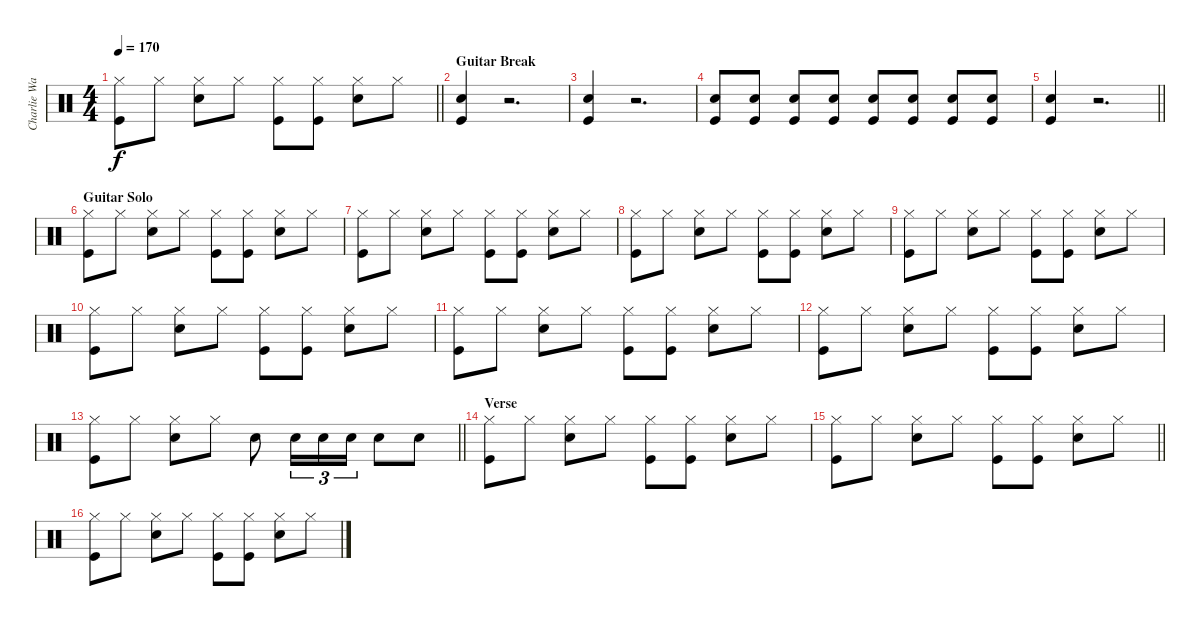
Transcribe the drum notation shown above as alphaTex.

\track ("Charlie Watts" "Charlie Wa") {instrument percussion}
\staff {score}
\articulation defaults
\ts (4 4)
\tempo 170
\clef neutral
\barLineRight lightlight
\ks c
("Hi-Hat (closed)" "Kick (hit)").8{dy f} "Hi-Hat (closed)".8 ("Hi-Hat (closed)" "Snare (hit) 2").8 "Hi-Hat (closed)".8 ("Hi-Hat (closed)" "Kick (hit)").8 ("Hi-Hat (closed)" "Kick (hit)").8 ("Hi-Hat (closed)" "Snare (hit) 2").8 "Hi-Hat (closed)".8 |
\section ("" "Guitar Break")
("Snare (hit) 2" "Kick (hit)").4 r.2{d} |
("Snare (hit) 2" "Kick (hit)").4 r.2{d} |
("Snare (hit) 2" "Kick (hit)").8 ("Snare (hit) 2" "Kick (hit)").8 ("Snare (hit) 2" "Kick (hit)").8 ("Snare (hit) 2" "Kick (hit)").8 ("Snare (hit) 2" "Kick (hit)").8 ("Snare (hit) 2" "Kick (hit)").8 ("Snare (hit) 2" "Kick (hit)").8 ("Snare (hit) 2" "Kick (hit)").8 |
\barLineRight lightlight
("Snare (hit) 2" "Kick (hit)").4 r.2{d} |
\section ("" "Guitar Solo")
("Hi-Hat (closed)" "Kick (hit)").8 "Hi-Hat (closed)".8 ("Hi-Hat (closed)" "Snare (hit) 2").8 "Hi-Hat (closed)".8 ("Hi-Hat (closed)" "Kick (hit)").8 ("Hi-Hat (closed)" "Kick (hit)").8 ("Hi-Hat (closed)" "Snare (hit) 2").8 "Hi-Hat (closed)".8 |
("Hi-Hat (closed)" "Kick (hit)").8 "Hi-Hat (closed)".8 ("Hi-Hat (closed)" "Snare (hit) 2").8 "Hi-Hat (closed)".8 ("Hi-Hat (closed)" "Kick (hit)").8 ("Hi-Hat (closed)" "Kick (hit)").8 ("Hi-Hat (closed)" "Snare (hit) 2").8 "Hi-Hat (closed)".8 |
("Hi-Hat (closed)" "Kick (hit)").8 "Hi-Hat (closed)".8 ("Hi-Hat (closed)" "Snare (hit) 2").8 "Hi-Hat (closed)".8 ("Hi-Hat (closed)" "Kick (hit)").8 ("Hi-Hat (closed)" "Kick (hit)").8 ("Hi-Hat (closed)" "Snare (hit) 2").8 "Hi-Hat (closed)".8 |
("Hi-Hat (closed)" "Kick (hit)").8 "Hi-Hat (closed)".8 ("Hi-Hat (closed)" "Snare (hit) 2").8 "Hi-Hat (closed)".8 ("Hi-Hat (closed)" "Kick (hit)").8 ("Hi-Hat (closed)" "Kick (hit)").8 ("Hi-Hat (closed)" "Snare (hit) 2").8 "Hi-Hat (closed)".8 |
("Hi-Hat (closed)" "Kick (hit)").8 "Hi-Hat (closed)".8 ("Hi-Hat (closed)" "Snare (hit) 2").8 "Hi-Hat (closed)".8 ("Hi-Hat (closed)" "Kick (hit)").8 ("Hi-Hat (closed)" "Kick (hit)").8 ("Hi-Hat (closed)" "Snare (hit) 2").8 "Hi-Hat (closed)".8 |
("Hi-Hat (closed)" "Kick (hit)").8 "Hi-Hat (closed)".8 ("Hi-Hat (closed)" "Snare (hit) 2").8 "Hi-Hat (closed)".8 ("Hi-Hat (closed)" "Kick (hit)").8 ("Hi-Hat (closed)" "Kick (hit)").8 ("Hi-Hat (closed)" "Snare (hit) 2").8 "Hi-Hat (closed)".8 |
("Hi-Hat (closed)" "Kick (hit)").8 "Hi-Hat (closed)".8 ("Hi-Hat (closed)" "Snare (hit) 2").8 "Hi-Hat (closed)".8 ("Hi-Hat (closed)" "Kick (hit)").8 ("Hi-Hat (closed)" "Kick (hit)").8 ("Hi-Hat (closed)" "Snare (hit) 2").8 "Hi-Hat (closed)".8 |
\barLineRight lightlight
("Hi-Hat (closed)" "Kick (hit)").8 "Hi-Hat (closed)".8 ("Hi-Hat (closed)" "Snare (hit) 2").8 "Hi-Hat (closed)".8 "Snare (hit) 2".8 "Snare (hit) 2".16{tu (3 2)} "Snare (hit) 2".16{tu (3 2)} "Snare (hit) 2".16{tu (3 2)} "Snare (hit) 2".8 "Snare (hit) 2".8 |
\section ("" "Verse")
("Hi-Hat (closed)" "Kick (hit)").8 "Hi-Hat (closed)".8 ("Hi-Hat (closed)" "Snare (hit) 2").8 "Hi-Hat (closed)".8 ("Hi-Hat (closed)" "Kick (hit)").8 ("Hi-Hat (closed)" "Kick (hit)").8 ("Hi-Hat (closed)" "Snare (hit) 2").8 "Hi-Hat (closed)".8 |
\barLineRight lightlight
("Hi-Hat (closed)" "Kick (hit)").8 "Hi-Hat (closed)".8 ("Hi-Hat (closed)" "Snare (hit) 2").8 "Hi-Hat (closed)".8 ("Hi-Hat (closed)" "Kick (hit)").8 ("Hi-Hat (closed)" "Kick (hit)").8 ("Hi-Hat (closed)" "Snare (hit) 2").8 "Hi-Hat (closed)".8 |
("Hi-Hat (closed)" "Kick (hit)").8 "Hi-Hat (closed)".8 ("Hi-Hat (closed)" "Snare (hit) 2").8 "Hi-Hat (closed)".8 ("Hi-Hat (closed)" "Kick (hit)").8 ("Hi-Hat (closed)" "Kick (hit)").8 ("Hi-Hat (closed)" "Snare (hit) 2").8 "Hi-Hat (closed)".8
